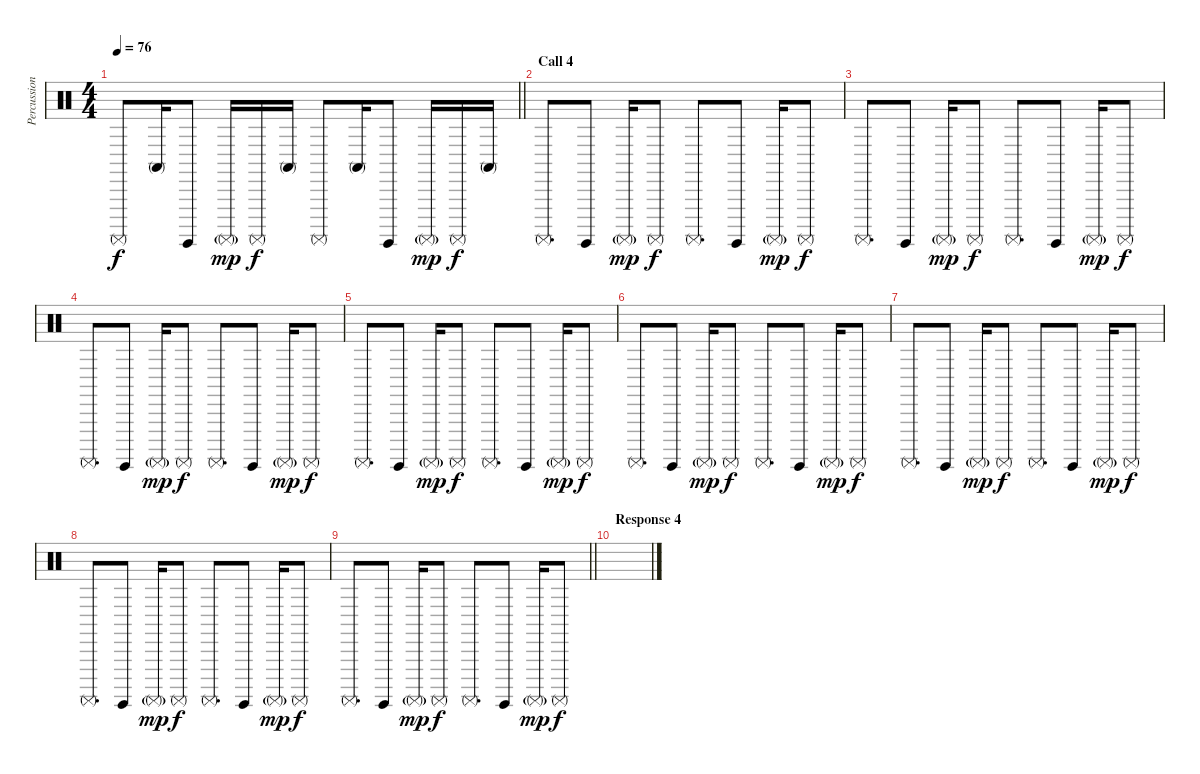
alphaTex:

\track ("Percussion" "Percussion") {instrument percussion}
\staff {score}
\articulation defaults
\ts (4 4)
\tempo 76
\clef neutral
\barLineRight lightlight
\ks c "Surdo (mute)".8{dy f} "Conga high (mute)".16 "Surdo (hit)".8 "Surdo (mute)"{g}.16{dy mp} "Surdo (mute)".16{dy f} "Conga high (mute)".16 "Surdo (mute)".8 "Conga high (mute)".16 "Surdo (hit)".8 "Surdo (mute)"{g}.16{dy mp} "Surdo (mute)".16{dy f} "Conga high (mute)".16
|
\section ("" "Call 4")
"Surdo (mute)".8{d volume 8} "Surdo (hit)".8 "Surdo (mute)"{g}.16{dy mp} "Surdo (mute)".8{dy f} "Surdo (mute)".8{d} "Surdo (hit)".8 "Surdo (mute)"{g}.16{dy mp} "Surdo (mute)".8{dy f} |
"Surdo (mute)".8{d} "Surdo (hit)".8 "Surdo (mute)"{g}.16{dy mp} "Surdo (mute)".8{dy f} "Surdo (mute)".8{d} "Surdo (hit)".8 "Surdo (mute)"{g}.16{dy mp} "Surdo (mute)".8{dy f} |
"Surdo (mute)".8{d} "Surdo (hit)".8 "Surdo (mute)"{g}.16{dy mp} "Surdo (mute)".8{dy f} "Surdo (mute)".8{d} "Surdo (hit)".8 "Surdo (mute)"{g}.16{dy mp} "Surdo (mute)".8{dy f} |
"Surdo (mute)".8{d} "Surdo (hit)".8 "Surdo (mute)"{g}.16{dy mp} "Surdo (mute)".8{dy f} "Surdo (mute)".8{d} "Surdo (hit)".8 "Surdo (mute)"{g}.16{dy mp} "Surdo (mute)".8{dy f} |
"Surdo (mute)".8{d} "Surdo (hit)".8 "Surdo (mute)"{g}.16{dy mp} "Surdo (mute)".8{dy f} "Surdo (mute)".8{d} "Surdo (hit)".8 "Surdo (mute)"{g}.16{dy mp} "Surdo (mute)".8{dy f} |
"Surdo (mute)".8{d} "Surdo (hit)".8 "Surdo (mute)"{g}.16{dy mp} "Surdo (mute)".8{dy f} "Surdo (mute)".8{d} "Surdo (hit)".8 "Surdo (mute)"{g}.16{dy mp} "Surdo (mute)".8{dy f} |
"Surdo (mute)".8{d} "Surdo (hit)".8 "Surdo (mute)"{g}.16{dy mp} "Surdo (mute)".8{dy f} "Surdo (mute)".8{d} "Surdo (hit)".8 "Surdo (mute)"{g}.16{dy mp} "Surdo (mute)".8{dy f} |
\barLineRight lightlight "Surdo (mute)".8{d} "Surdo (hit)".8 "Surdo (mute)"{g}.16{dy mp} "Surdo (mute)".8{dy f} "Surdo (mute)".8{d} "Surdo (hit)".8 "Surdo (mute)"{g}.16{dy mp} "Surdo (mute)".8{dy f}
|
\section ("" "Response 4")
